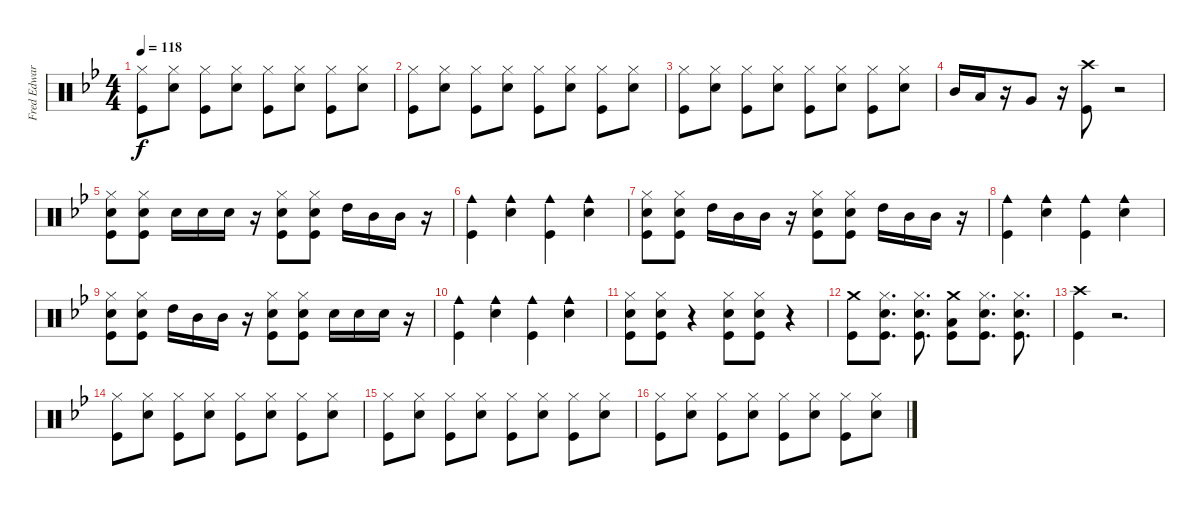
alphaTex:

\track ("Fred Edwards Drums" "Fred Edwar") {instrument percussion}
\staff {score}
\articulation defaults
\ts (4 4)
\tempo 118
\clef neutral
\ks gminor
("Hi-Hat (closed)" "Kick (hit)").8{dy f} ("Hi-Hat (closed)" "Snare (hit) 2").8 ("Hi-Hat (closed)" "Kick (hit)").8 ("Hi-Hat (closed)" "Snare (hit) 2").8 ("Hi-Hat (closed)" "Kick (hit)").8 ("Hi-Hat (closed)" "Snare (hit) 2").8 ("Hi-Hat (closed)" "Kick (hit)").8 ("Hi-Hat (closed)" "Snare (hit) 2").8 |
("Hi-Hat (closed)" "Kick (hit)").8 ("Hi-Hat (closed)" "Snare (hit) 2").8 ("Hi-Hat (closed)" "Kick (hit)").8 ("Hi-Hat (closed)" "Snare (hit) 2").8 ("Hi-Hat (closed)" "Kick (hit)").8 ("Hi-Hat (closed)" "Snare (hit) 2").8 ("Hi-Hat (closed)" "Kick (hit)").8 ("Hi-Hat (closed)" "Snare (hit) 2").8 |
("Hi-Hat (closed)" "Kick (hit)").8 ("Hi-Hat (closed)" "Snare (hit) 2").8 ("Hi-Hat (closed)" "Kick (hit)").8 ("Hi-Hat (closed)" "Snare (hit) 2").8 ("Hi-Hat (closed)" "Kick (hit)").8 ("Hi-Hat (closed)" "Snare (hit) 2").8 ("Hi-Hat (closed)" "Kick (hit)").8 ("Hi-Hat (closed)" "Snare (hit) 2").8 |
"Mid Tom (hit)".16 "Low Tom (hit)".16 r.16 "Very Low Tom (hit)".8 r.16 ("Crash high (hit)" "Kick (hit)").8 r.2 |
("Hi-Hat (closed)" "Snare (hit) 2" "Kick (hit)").8 ("Hi-Hat (closed)" "Snare (hit) 2" "Kick (hit)").8 "Snare (hit) 2".16 "Snare (hit) 2".16 "Snare (hit) 2".16 r.16 ("Hi-Hat (closed)" "Snare (hit) 2" "Kick (hit)").8 ("Hi-Hat (closed)" "Snare (hit) 2" "Kick (hit)").8 "High Tom (hit)".16 "Mid Tom (hit)".16 "Mid Tom (hit)".16 r.16 |
("Cowbell medium (hit)" "Kick (hit)").4 ("Cowbell medium (hit)" "Snare (hit) 2").4 ("Cowbell medium (hit)" "Kick (hit)").4 ("Cowbell medium (hit)" "Snare (hit) 2").4 |
("Hi-Hat (closed)" "Snare (hit) 2" "Kick (hit)").8 ("Hi-Hat (closed)" "Snare (hit) 2" "Kick (hit)").8 "High Tom (hit)".16 "Mid Tom (hit)".16 "Mid Tom (hit)".16 r.16 ("Hi-Hat (closed)" "Snare (hit) 2" "Kick (hit)").8 ("Hi-Hat (closed)" "Snare (hit) 2" "Kick (hit)").8 "High Tom (hit)".16 "Mid Tom (hit)".16 "Mid Tom (hit)".16 r.16 |
("Cowbell medium (hit)" "Kick (hit)").4 ("Cowbell medium (hit)" "Snare (hit) 2").4 ("Cowbell medium (hit)" "Kick (hit)").4 ("Cowbell medium (hit)" "Snare (hit) 2").4 |
("Hi-Hat (closed)" "Snare (hit) 2" "Kick (hit)").8 ("Hi-Hat (closed)" "Snare (hit) 2" "Kick (hit)").8 "High Tom (hit)".16 "Mid Tom (hit)".16 "Mid Tom (hit)".16 r.16 ("Hi-Hat (closed)" "Snare (hit) 2" "Kick (hit)").8 ("Hi-Hat (closed)" "Snare (hit) 2" "Kick (hit)").8 "Snare (hit) 2".16 "Snare (hit) 2".16 "Snare (hit) 2".16 r.16 |
("Cowbell medium (hit)" "Kick (hit)").4 ("Cowbell medium (hit)" "Snare (hit) 2").4 ("Cowbell medium (hit)" "Kick (hit)").4 ("Cowbell medium (hit)" "Snare (hit) 2").4 |
("Hi-Hat (closed)" "Snare (hit) 2" "Kick (hit)").8 ("Hi-Hat (closed)" "Snare (hit) 2" "Kick (hit)").8 r.4 ("Hi-Hat (closed)" "Snare (hit) 2" "Kick (hit)").8 ("Hi-Hat (closed)" "Snare (hit) 2" "Kick (hit)").8 r.4 |
("Crash medium (hit)" "Kick (hit)").8 ("Hi-Hat (closed)" "Snare (hit) 2" "Kick (hit)").8{d} ("Hi-Hat (closed)" "Snare (hit) 2" "Kick (hit)").8{d} ("Crash medium (hit)" "Low Floor Tom (hit)" "Kick (hit)").8 ("Hi-Hat (closed)" "Snare (hit) 2" "Kick (hit)").8{d} ("Hi-Hat (closed)" "Snare (hit) 2" "Kick (hit)").8{d} |
("Crash high (hit)" "Kick (hit)").4 r.2{d} |
("Hi-Hat (closed)" "Kick (hit)").8 ("Hi-Hat (closed)" "Snare (hit) 2").8 ("Hi-Hat (closed)" "Kick (hit)").8 ("Hi-Hat (closed)" "Snare (hit) 2").8 ("Hi-Hat (closed)" "Kick (hit)").8 ("Hi-Hat (closed)" "Snare (hit) 2").8 ("Hi-Hat (closed)" "Kick (hit)").8 ("Hi-Hat (closed)" "Snare (hit) 2").8 |
("Hi-Hat (closed)" "Kick (hit)").8 ("Hi-Hat (closed)" "Snare (hit) 2").8 ("Hi-Hat (closed)" "Kick (hit)").8 ("Hi-Hat (closed)" "Snare (hit) 2").8 ("Hi-Hat (closed)" "Kick (hit)").8 ("Hi-Hat (closed)" "Snare (hit) 2").8 ("Hi-Hat (closed)" "Kick (hit)").8 ("Hi-Hat (closed)" "Snare (hit) 2").8 |
("Hi-Hat (closed)" "Kick (hit)").8 ("Hi-Hat (closed)" "Snare (hit) 2").8 ("Hi-Hat (closed)" "Kick (hit)").8 ("Hi-Hat (closed)" "Snare (hit) 2").8 ("Hi-Hat (closed)" "Kick (hit)").8 ("Hi-Hat (closed)" "Snare (hit) 2").8 ("Hi-Hat (closed)" "Kick (hit)").8 ("Hi-Hat (closed)" "Snare (hit) 2").8
